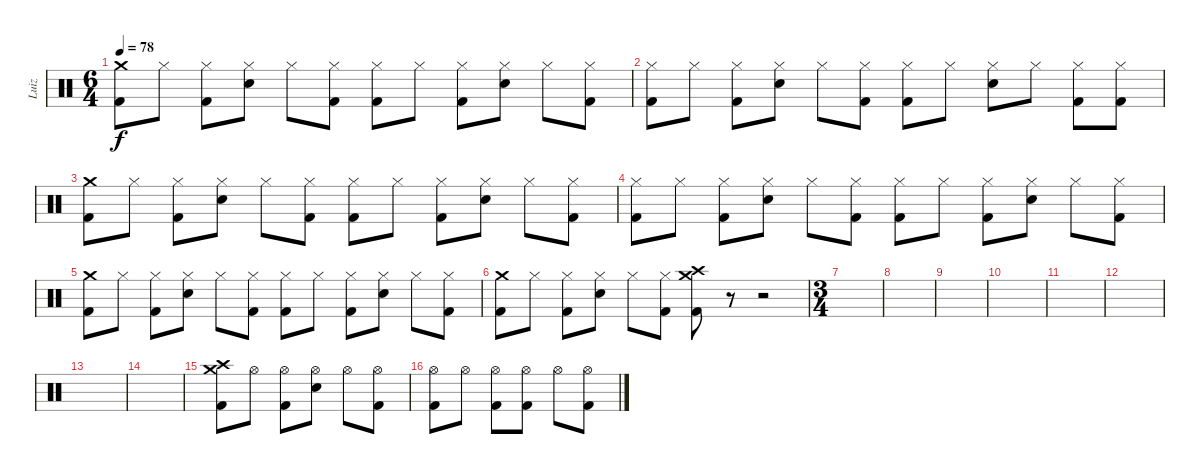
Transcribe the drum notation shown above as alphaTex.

\track ("Luiz" "Luiz") {instrument percussion}
\staff {score}
\articulation defaults
\ts (6 4)
\tempo 78
\clef neutral
\ks c
("Crash medium (hit)" "Kick (hit) 2").8{dy f} "Hi-Hat (closed)".8 ("Hi-Hat (closed)" "Kick (hit) 2").8 ("Hi-Hat (closed)" "Snare (hit) 2").8 "Hi-Hat (closed)".8 ("Hi-Hat (closed)" "Kick (hit) 2").8 ("Hi-Hat (closed)" "Kick (hit) 2").8 "Hi-Hat (closed)".8 ("Hi-Hat (closed)" "Kick (hit) 2").8 ("Hi-Hat (closed)" "Snare (hit) 2").8 "Hi-Hat (closed)".8 ("Hi-Hat (closed)" "Kick (hit) 2").8 |
("Hi-Hat (closed)" "Kick (hit) 2").8 "Hi-Hat (closed)".8 ("Hi-Hat (closed)" "Kick (hit) 2").8 ("Hi-Hat (closed)" "Snare (hit) 2").8 "Hi-Hat (closed)".8 ("Hi-Hat (closed)" "Kick (hit) 2").8 ("Hi-Hat (closed)" "Kick (hit) 2").8 "Hi-Hat (closed)".8 ("Hi-Hat (closed)" "Snare (hit) 2").8 "Hi-Hat (closed)".8 ("Hi-Hat (closed)" "Kick (hit) 2").8 ("Hi-Hat (closed)" "Kick (hit) 2").8 |
("Crash medium (hit)" "Kick (hit) 2").8 "Hi-Hat (closed)".8 ("Hi-Hat (closed)" "Kick (hit) 2").8 ("Hi-Hat (closed)" "Snare (hit) 2").8 "Hi-Hat (closed)".8 ("Hi-Hat (closed)" "Kick (hit) 2").8 ("Hi-Hat (closed)" "Kick (hit) 2").8 "Hi-Hat (closed)".8 ("Hi-Hat (closed)" "Kick (hit) 2").8 ("Hi-Hat (closed)" "Snare (hit) 2").8 "Hi-Hat (closed)".8 ("Hi-Hat (closed)" "Kick (hit) 2").8 |
("Hi-Hat (closed)" "Kick (hit) 2").8 "Hi-Hat (closed)".8 ("Hi-Hat (closed)" "Kick (hit) 2").8 ("Hi-Hat (closed)" "Snare (hit) 2").8 "Hi-Hat (closed)".8 ("Hi-Hat (closed)" "Kick (hit) 2").8 ("Hi-Hat (closed)" "Kick (hit) 2").8 "Hi-Hat (closed)".8 ("Hi-Hat (closed)" "Kick (hit) 2").8 ("Hi-Hat (closed)" "Snare (hit) 2").8 "Hi-Hat (closed)".8 ("Hi-Hat (closed)" "Kick (hit) 2").8 |
("Crash medium (hit)" "Kick (hit) 2").8 "Hi-Hat (closed)".8 ("Hi-Hat (closed)" "Kick (hit) 2").8 ("Hi-Hat (closed)" "Snare (hit) 2").8 "Hi-Hat (closed)".8 ("Hi-Hat (closed)" "Kick (hit) 2").8 ("Hi-Hat (closed)" "Kick (hit) 2").8 "Hi-Hat (closed)".8 ("Hi-Hat (closed)" "Kick (hit) 2").8 ("Hi-Hat (closed)" "Snare (hit) 2").8 "Hi-Hat (closed)".8 ("Hi-Hat (closed)" "Kick (hit) 2").8 |
("Crash medium (hit)" "Kick (hit) 2").8 "Hi-Hat (closed)".8 ("Hi-Hat (closed)" "Kick (hit) 2").8 ("Hi-Hat (closed)" "Snare (hit) 2").8 "Hi-Hat (closed)".8 ("Hi-Hat (closed)" "Kick (hit) 2").8 ("Crash medium (hit)" "Crash high (hit)" "Kick (hit) 2").8 r.8 r.2 |
\ts (3 4)
|
|
|
|
|
|
|
|
("Crash medium (hit)" "Crash high (hit)" "Kick (hit) 2").8 "Hi-Hat (open)".8 ("Hi-Hat (open)" "Kick (hit) 2").8 ("Hi-Hat (open)" "Snare (hit) 2").8 "Hi-Hat (open)".8 ("Hi-Hat (open)" "Kick (hit) 2").8 |
("Hi-Hat (open)" "Kick (hit) 2").8 "Hi-Hat (open)".8 ("Hi-Hat (open)" "Kick (hit) 2").8 ("Hi-Hat (open)" "Kick (hit) 2").8 "Hi-Hat (open)".8 ("Hi-Hat (open)" "Kick (hit) 2").8
